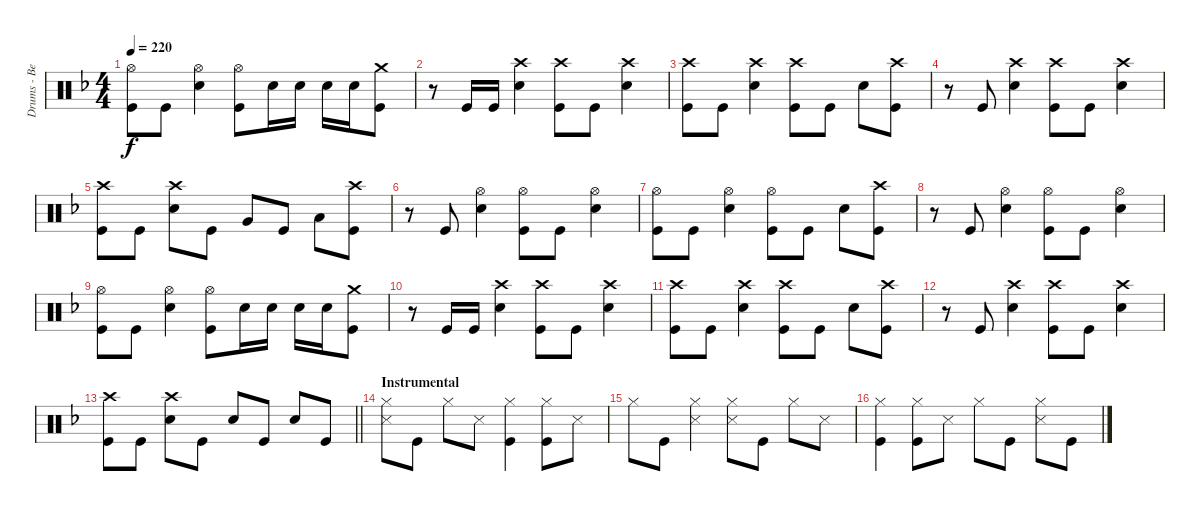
\track ("Drums - Ben Johnston" "Drums - Be") {instrument percussion}
\staff {score}
\articulation defaults
\ts (4 4)
\tempo 220
\clef neutral
\ks dminor
("Hi-Hat (open)" "Kick (hit)").8{dy f} "Kick (hit)".8 ("Hi-Hat (open)" "Snare (hit) 2").4 ("Hi-Hat (open)" "Kick (hit)").8 "Snare (hit) 2".16 "Snare (hit) 2".16 "Snare (hit) 2".16 "Snare (hit) 2".16 ("Crash medium (hit)" "Kick (hit)").8 |
r.8 "Kick (hit)".16 "Kick (hit)".16 ("Crash high (hit)" "Snare (hit) 2").4 ("Crash high (hit)" "Kick (hit)").8 "Kick (hit)".8 ("Crash high (hit)" "Snare (hit) 2").4 |
("Crash high (hit)" "Kick (hit)").8 "Kick (hit)".8 ("Crash high (hit)" "Snare (hit) 2").4 ("Crash high (hit)" "Kick (hit)").8 "Kick (hit)".8 "Snare (hit) 2".8 ("Crash high (hit)" "Kick (hit)").8 |
r.8 "Kick (hit)".8 ("Crash high (hit)" "Snare (hit) 2").4 ("Crash high (hit)" "Kick (hit)").8 "Kick (hit)".8 ("Crash high (hit)" "Snare (hit) 2").4 |
("Crash high (hit)" "Kick (hit)").8 "Kick (hit)".8 ("Crash high (hit)" "Snare (hit) 2").8 "Kick (hit)".8 "Very Low Tom (hit)".8 "Kick (hit)".8 "Low Floor Tom (hit)".8 ("Crash high (hit)" "Kick (hit)").8 |
r.8 "Kick (hit)".8 ("Hi-Hat (open)" "Snare (hit) 2").4 ("Hi-Hat (open)" "Kick (hit)").8 "Kick (hit)".8 ("Hi-Hat (open)" "Snare (hit) 2").4 |
("Hi-Hat (open)" "Kick (hit)").8 "Kick (hit)".8 ("Hi-Hat (open)" "Snare (hit) 2").4 ("Hi-Hat (open)" "Kick (hit)").8 "Kick (hit)".8 "Snare (hit) 2".8 ("Crash high (hit)" "Kick (hit)").8 |
r.8 "Kick (hit)".8 ("Hi-Hat (open)" "Snare (hit) 2").4 ("Hi-Hat (open)" "Kick (hit)").8 "Kick (hit)".8 ("Hi-Hat (open)" "Snare (hit) 2").4 |
("Hi-Hat (open)" "Kick (hit)").8 "Kick (hit)".8 ("Hi-Hat (open)" "Snare (hit) 2").4 ("Hi-Hat (open)" "Kick (hit)").8 "Snare (hit) 2".16 "Snare (hit) 2".16 "Snare (hit) 2".16 "Snare (hit) 2".16 ("Crash medium (hit)" "Kick (hit)").8 |
r.8 "Kick (hit)".16 "Kick (hit)".16 ("Crash high (hit)" "Snare (hit) 2").4 ("Crash high (hit)" "Kick (hit)").8 "Kick (hit)".8 ("Crash high (hit)" "Snare (hit) 2").4 |
("Crash high (hit)" "Kick (hit)").8 "Kick (hit)".8 ("Crash high (hit)" "Snare (hit) 2").4 ("Crash high (hit)" "Kick (hit)").8 "Kick (hit)".8 "Snare (hit) 2".8 ("Crash high (hit)" "Kick (hit)").8 |
r.8 "Kick (hit)".8 ("Crash high (hit)" "Snare (hit) 2").4 ("Crash high (hit)" "Kick (hit)").8 "Kick (hit)".8 ("Crash high (hit)" "Snare (hit) 2").4 |
\barLineRight lightlight
("Crash high (hit)" "Kick (hit)").8 "Kick (hit)".8 ("Crash high (hit)" "Snare (hit) 2").8 "Kick (hit)".8 "Snare (hit) 2".8 "Kick (hit)".8 "Snare (hit) 2".8 "Kick (hit)".8 |
\section ("" "Instrumental")
("Hi-Hat (closed)" "Snare (side stick) 3").8 "Kick (hit)".8 "Hi-Hat (closed)".8 "Snare (side stick) 3".8 ("Hi-Hat (closed)" "Kick (hit)").4 ("Hi-Hat (closed)" "Kick (hit)").8 "Snare (side stick) 3".8 |
"Hi-Hat (closed)".8 "Kick (hit)".8 ("Hi-Hat (closed)" "Snare (side stick) 3").4 ("Hi-Hat (closed)" "Snare (side stick) 3").8 "Kick (hit)".8 "Hi-Hat (closed)".8 "Snare (side stick) 3".8 |
("Hi-Hat (closed)" "Kick (hit)").4 ("Hi-Hat (closed)" "Kick (hit)").8 "Snare (side stick) 3".8 "Hi-Hat (closed)".8 "Kick (hit)".8 ("Hi-Hat (closed)" "Snare (side stick) 3").8 "Kick (hit)".8
